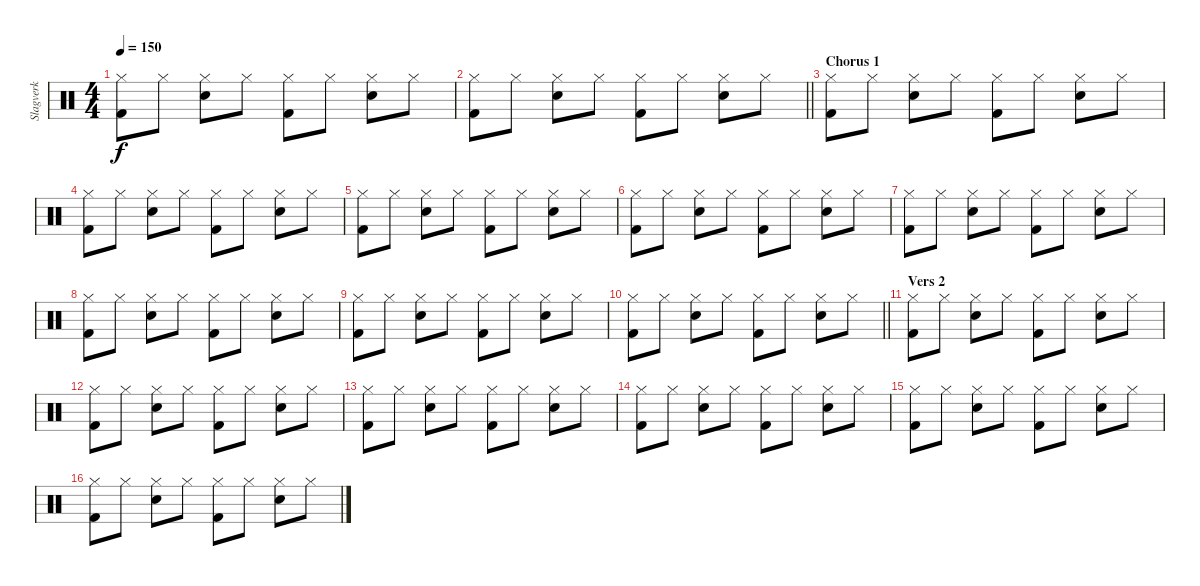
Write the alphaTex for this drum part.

\track ("Slagverk" "Slagverk") {instrument percussion}
\staff {score}
\articulation defaults
\ts (4 4)
\tempo 150
\clef neutral
\ks c
("Kick (hit) 2" "Hi-Hat (closed)").8{dy f} "Hi-Hat (closed)".8 ("Snare (hit) 2" "Hi-Hat (closed)").8 "Hi-Hat (closed)".8 ("Kick (hit) 2" "Hi-Hat (closed)").8 "Hi-Hat (closed)".8 ("Snare (hit) 2" "Hi-Hat (closed)").8 "Hi-Hat (closed)".8 |
\barLineRight lightlight
("Kick (hit) 2" "Hi-Hat (closed)").8 "Hi-Hat (closed)".8 ("Snare (hit) 2" "Hi-Hat (closed)").8 "Hi-Hat (closed)".8 ("Kick (hit) 2" "Hi-Hat (closed)").8 "Hi-Hat (closed)".8 ("Snare (hit) 2" "Hi-Hat (closed)").8 "Hi-Hat (closed)".8 |
\section ("" "Chorus 1")
("Kick (hit) 2" "Hi-Hat (closed)").8 "Hi-Hat (closed)".8 ("Snare (hit) 2" "Hi-Hat (closed)").8 "Hi-Hat (closed)".8 ("Kick (hit) 2" "Hi-Hat (closed)").8 "Hi-Hat (closed)".8 ("Snare (hit) 2" "Hi-Hat (closed)").8 "Hi-Hat (closed)".8 |
("Kick (hit) 2" "Hi-Hat (closed)").8 "Hi-Hat (closed)".8 ("Snare (hit) 2" "Hi-Hat (closed)").8 "Hi-Hat (closed)".8 ("Kick (hit) 2" "Hi-Hat (closed)").8 "Hi-Hat (closed)".8 ("Snare (hit) 2" "Hi-Hat (closed)").8 "Hi-Hat (closed)".8 |
("Kick (hit) 2" "Hi-Hat (closed)").8 "Hi-Hat (closed)".8 ("Snare (hit) 2" "Hi-Hat (closed)").8 "Hi-Hat (closed)".8 ("Kick (hit) 2" "Hi-Hat (closed)").8 "Hi-Hat (closed)".8 ("Snare (hit) 2" "Hi-Hat (closed)").8 "Hi-Hat (closed)".8 |
("Kick (hit) 2" "Hi-Hat (closed)").8 "Hi-Hat (closed)".8 ("Snare (hit) 2" "Hi-Hat (closed)").8 "Hi-Hat (closed)".8 ("Kick (hit) 2" "Hi-Hat (closed)").8 "Hi-Hat (closed)".8 ("Snare (hit) 2" "Hi-Hat (closed)").8 "Hi-Hat (closed)".8 |
("Kick (hit) 2" "Hi-Hat (closed)").8 "Hi-Hat (closed)".8 ("Snare (hit) 2" "Hi-Hat (closed)").8 "Hi-Hat (closed)".8 ("Kick (hit) 2" "Hi-Hat (closed)").8 "Hi-Hat (closed)".8 ("Snare (hit) 2" "Hi-Hat (closed)").8 "Hi-Hat (closed)".8 |
("Kick (hit) 2" "Hi-Hat (closed)").8 "Hi-Hat (closed)".8 ("Snare (hit) 2" "Hi-Hat (closed)").8 "Hi-Hat (closed)".8 ("Kick (hit) 2" "Hi-Hat (closed)").8 "Hi-Hat (closed)".8 ("Snare (hit) 2" "Hi-Hat (closed)").8 "Hi-Hat (closed)".8 |
("Kick (hit) 2" "Hi-Hat (closed)").8 "Hi-Hat (closed)".8 ("Snare (hit) 2" "Hi-Hat (closed)").8 "Hi-Hat (closed)".8 ("Kick (hit) 2" "Hi-Hat (closed)").8 "Hi-Hat (closed)".8 ("Snare (hit) 2" "Hi-Hat (closed)").8 "Hi-Hat (closed)".8 |
\barLineRight lightlight
("Kick (hit) 2" "Hi-Hat (closed)").8 "Hi-Hat (closed)".8 ("Snare (hit) 2" "Hi-Hat (closed)").8 "Hi-Hat (closed)".8 ("Kick (hit) 2" "Hi-Hat (closed)").8 "Hi-Hat (closed)".8 ("Snare (hit) 2" "Hi-Hat (closed)").8 "Hi-Hat (closed)".8 |
\section ("" "Vers 2")
("Kick (hit) 2" "Hi-Hat (closed)").8 "Hi-Hat (closed)".8 ("Snare (hit) 2" "Hi-Hat (closed)").8 "Hi-Hat (closed)".8 ("Kick (hit) 2" "Hi-Hat (closed)").8 "Hi-Hat (closed)".8 ("Snare (hit) 2" "Hi-Hat (closed)").8 "Hi-Hat (closed)".8 |
("Kick (hit) 2" "Hi-Hat (closed)").8 "Hi-Hat (closed)".8 ("Snare (hit) 2" "Hi-Hat (closed)").8 "Hi-Hat (closed)".8 ("Kick (hit) 2" "Hi-Hat (closed)").8 "Hi-Hat (closed)".8 ("Snare (hit) 2" "Hi-Hat (closed)").8 "Hi-Hat (closed)".8 |
("Kick (hit) 2" "Hi-Hat (closed)").8 "Hi-Hat (closed)".8 ("Snare (hit) 2" "Hi-Hat (closed)").8 "Hi-Hat (closed)".8 ("Kick (hit) 2" "Hi-Hat (closed)").8 "Hi-Hat (closed)".8 ("Snare (hit) 2" "Hi-Hat (closed)").8 "Hi-Hat (closed)".8 |
("Kick (hit) 2" "Hi-Hat (closed)").8 "Hi-Hat (closed)".8 ("Snare (hit) 2" "Hi-Hat (closed)").8 "Hi-Hat (closed)".8 ("Kick (hit) 2" "Hi-Hat (closed)").8 "Hi-Hat (closed)".8 ("Snare (hit) 2" "Hi-Hat (closed)").8 "Hi-Hat (closed)".8 |
("Kick (hit) 2" "Hi-Hat (closed)").8 "Hi-Hat (closed)".8 ("Snare (hit) 2" "Hi-Hat (closed)").8 "Hi-Hat (closed)".8 ("Kick (hit) 2" "Hi-Hat (closed)").8 "Hi-Hat (closed)".8 ("Snare (hit) 2" "Hi-Hat (closed)").8 "Hi-Hat (closed)".8 |
("Kick (hit) 2" "Hi-Hat (closed)").8 "Hi-Hat (closed)".8 ("Snare (hit) 2" "Hi-Hat (closed)").8 "Hi-Hat (closed)".8 ("Kick (hit) 2" "Hi-Hat (closed)").8 "Hi-Hat (closed)".8 ("Snare (hit) 2" "Hi-Hat (closed)").8 "Hi-Hat (closed)".8
